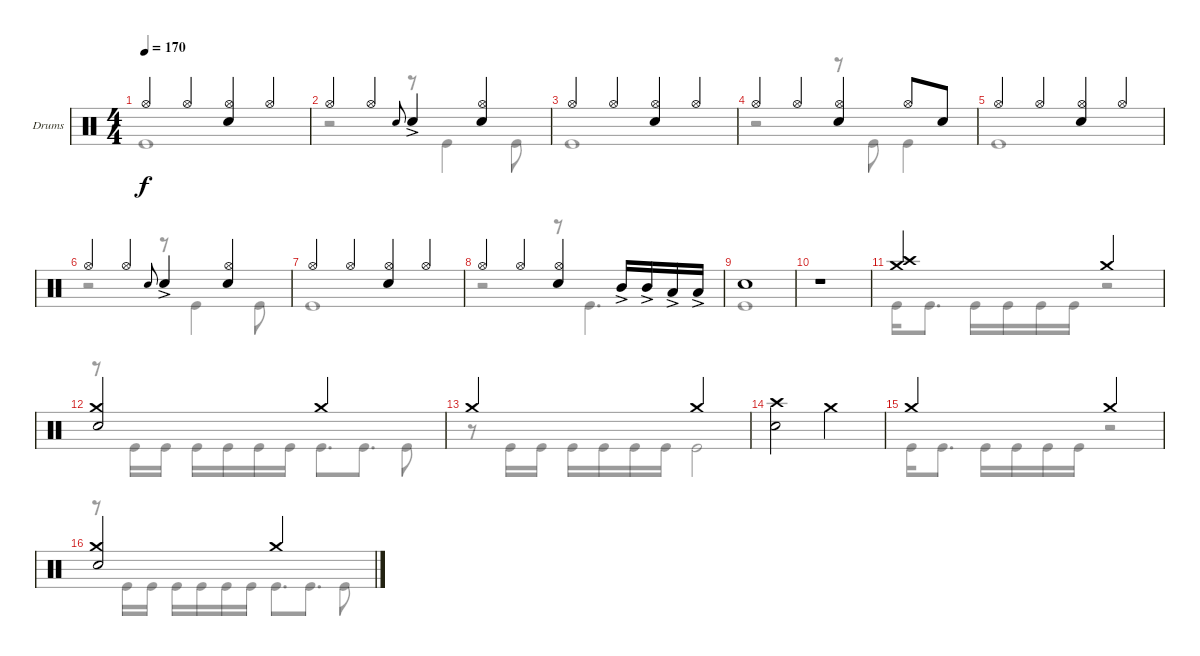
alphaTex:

\defaultSystemsLayout 4
\bracketExtendMode groupsimilarinstruments
\firstSystemTrackNameOrientation horizontal
\otherSystemsTrackNameOrientation horizontal
\track ("Drumkit" "Drums") {instrument percussion}
\staff {score}
\articulation defaults
\voice
\ts (4 4)
\tempo 170
\clef neutral
\ks c "Hi-Hat (open)".4{dy f} "Hi-Hat (open)".4
("Hi-Hat (open)" "Snare (hit) 2").4 "Hi-Hat (open)".4 |
"Hi-Hat (open)".4 "Hi-Hat (open)".4 "Snare (hit) 2".8{gr onbeat} "Snare (hit) 2"{ac}.4 ("Hi-Hat (open)" "Snare (hit) 2").4 |
"Hi-Hat (open)".4 "Hi-Hat (open)".4 ("Hi-Hat (open)" "Snare (hit) 2").4 "Hi-Hat (open)".4 |
"Hi-Hat (open)".4 "Hi-Hat (open)".4 ("Snare (hit) 2" "Hi-Hat (open)").4 "Hi-Hat (open)".8 "Snare (hit) 2".8 |
"Hi-Hat (open)".4 "Hi-Hat (open)".4 ("Hi-Hat (open)" "Snare (hit) 2").4 "Hi-Hat (open)".4 |
"Hi-Hat (open)".4 "Hi-Hat (open)".4 "Snare (hit) 2".8{gr onbeat} "Snare (hit) 2"{ac}.4 ("Hi-Hat (open)" "Snare (hit) 2").4 |
"Hi-Hat (open)".4 "Hi-Hat (open)".4 ("Hi-Hat (open)" "Snare (hit) 2").4 "Hi-Hat (open)".4 |
"Hi-Hat (open)".4 "Hi-Hat (open)".4 ("Snare (hit) 2" "Hi-Hat (open)").4 "Mid Tom (hit)"{ac}.16 "Mid Tom (hit)"{ac}.16 "Low Tom (hit)"{ac}.16 "Low Tom (hit)"{ac}.16 |
"Snare (hit) 2".1 |
r.1 |
("Crash medium (hit)" "Crash high (hit)").2 "Crash medium (hit)".2 |
("Crash medium (hit)" "Snare (hit) 2").2 "Crash medium (hit)".2 |
"Crash medium (hit)".2 "Crash medium (hit)".2 |
("Snare (hit) 2" "Crash high (hit)").2 "Crash medium (hit)".2 |
"Crash medium (hit)".2 "Crash medium (hit)".2 |
("Crash medium (hit)" "Snare (hit) 2").2 "Crash medium (hit)".2
\voice
\clef neutral
\ottava regular
\simile none
\ks c "Kick (hit)".1{dy f}
|
r.2 r.8 "Kick (hit)".4 "Kick (hit)".8 |
"Kick (hit)".1 |
r.2 r.8 "Kick (hit)".8 "Kick (hit)".4 |
"Kick (hit)".1 |
r.2 r.8 "Kick (hit)".4 "Kick (hit)".8 |
"Kick (hit)".1 |
r.2 r.8 "Kick (hit)".4{d} |
"Kick (hit)".1 |
|
"Kick (hit)".16 "Kick (hit)".8{d} "Kick (hit)".16 "Kick (hit)".16 "Kick (hit)".16 "Kick (hit)".16 r.2 |
r.8 "Kick (hit)".16 "Kick (hit)".16 "Kick (hit)".16 "Kick (hit)".16 "Kick (hit)".16 "Kick (hit)".16 "Kick (hit)".8{d} "Kick (hit)".8{d} "Kick (hit)".8 |
r.8 "Kick (hit)".16 "Kick (hit)".16 "Kick (hit)".16 "Kick (hit)".16 "Kick (hit)".16 "Kick (hit)".16 "Kick (hit)".2 |
|
"Kick (hit)".16 "Kick (hit)".8{d} "Kick (hit)".16 "Kick (hit)".16 "Kick (hit)".16 "Kick (hit)".16 r.2 |
r.8 "Kick (hit)".16 "Kick (hit)".16 "Kick (hit)".16 "Kick (hit)".16 "Kick (hit)".16 "Kick (hit)".16 "Kick (hit)".8{d} "Kick (hit)".8{d} "Kick (hit)".8
